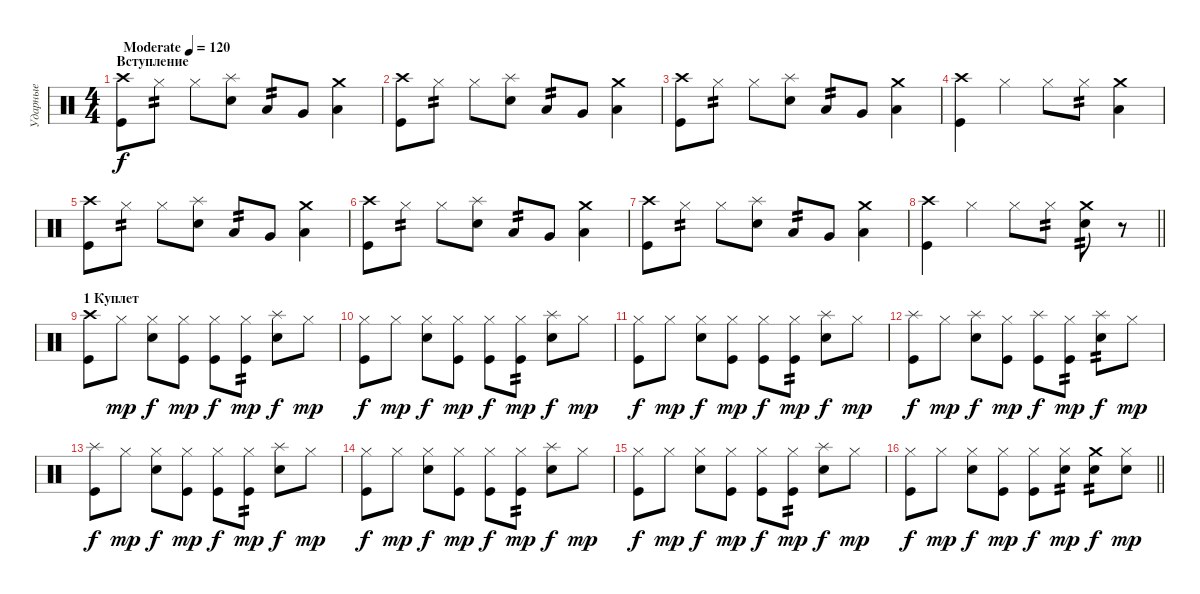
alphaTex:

\track ("Ударные" "Ударные") {instrument percussion}
\staff {score}
\articulation defaults
\ts (4 4)
\section ("" "Вступление")
\tempo (120 "Moderate")
\clef neutral
\ks c
("Crash high (hit)" "Kick (hit)").8{dy f} "Hi-Hat (closed)".8{tp 2} "Hi-Hat (closed)".8 ("Splash (hit)" "Snare (hit) 2").8 "Low Tom (hit)".8{tp 2} "Very Low Tom (hit)".8 ("Crash medium (hit)" "Low Floor Tom (hit)").4 |
("Crash high (hit)" "Kick (hit)").8 "Hi-Hat (closed)".8{tp 2} "Hi-Hat (closed)".8 ("Splash (hit)" "Snare (hit) 2").8 "Low Tom (hit)".8{tp 2} "Very Low Tom (hit)".8 ("Crash medium (hit)" "Low Floor Tom (hit)").4 |
("Crash high (hit)" "Kick (hit)").8 "Hi-Hat (closed)".8{tp 2} "Hi-Hat (closed)".8 ("Splash (hit)" "Snare (hit) 2").8 "Low Tom (hit)".8{tp 2} "Very Low Tom (hit)".8 ("Crash medium (hit)" "Low Floor Tom (hit)").4 |
("Crash high (hit)" "Kick (hit)").4 "Hi-Hat (closed)".4 "Hi-Hat (closed)".8 "Hi-Hat (closed)".8{tp 2} ("Crash medium (hit)" "Low Floor Tom (hit)").4 |
("Crash high (hit)" "Kick (hit)").8 "Hi-Hat (closed)".8{tp 2} "Hi-Hat (closed)".8 ("Splash (hit)" "Snare (hit) 2").8 "Low Tom (hit)".8{tp 2} "Very Low Tom (hit)".8 ("Crash medium (hit)" "Low Floor Tom (hit)").4 |
("Crash high (hit)" "Kick (hit)").8 "Hi-Hat (closed)".8{tp 2} "Hi-Hat (closed)".8 ("Splash (hit)" "Snare (hit) 2").8 "Low Tom (hit)".8{tp 2} "Very Low Tom (hit)".8 ("Crash medium (hit)" "Low Floor Tom (hit)").4 |
("Crash high (hit)" "Kick (hit)").8 "Hi-Hat (closed)".8{tp 2} "Hi-Hat (closed)".8 ("Splash (hit)" "Snare (hit) 2").8 "Low Tom (hit)".8{tp 2} "Very Low Tom (hit)".8 ("Crash medium (hit)" "Low Floor Tom (hit)").4 |
\barLineRight lightlight
("Crash high (hit)" "Kick (hit)").4 "Hi-Hat (closed)".4 "Hi-Hat (closed)".8 "Hi-Hat (closed)".8{tp 2} ("Crash medium (hit)" "Snare (hit) 2").8{tp 2} r.8 |
\section ("" "1 Куплет")
("Crash high (hit)" "Kick (hit)").8 "Hi-Hat (closed)".8{dy mp} ("Hi-Hat (closed)" "Snare (hit) 2").8{dy f} ("Hi-Hat (closed)" "Kick (hit)").8{dy mp} ("Hi-Hat (closed)" "Kick (hit)").8{dy f} ("Hi-Hat (closed)" "Kick (hit)").8{tp 2 dy mp} ("Splash (hit)" "Snare (hit) 2").8{dy f} "Hi-Hat (closed)".8{dy mp} |
("Hi-Hat (closed)" "Kick (hit)").8{dy f} "Hi-Hat (closed)".8{dy mp} ("Hi-Hat (closed)" "Snare (hit) 2").8{dy f} ("Hi-Hat (closed)" "Kick (hit)").8{dy mp} ("Hi-Hat (closed)" "Kick (hit)").8{dy f} ("Hi-Hat (closed)" "Kick (hit)").8{tp 2 dy mp} ("Splash (hit)" "Snare (hit) 2").8{dy f} "Hi-Hat (closed)".8{dy mp} |
("Hi-Hat (closed)" "Kick (hit)").8{dy f} "Hi-Hat (closed)".8{dy mp} ("Hi-Hat (closed)" "Snare (hit) 2").8{dy f} ("Hi-Hat (closed)" "Kick (hit)").8{dy mp} ("Hi-Hat (closed)" "Kick (hit)").8{dy f} ("Hi-Hat (closed)" "Kick (hit)").8{tp 2 dy mp} ("Splash (hit)" "Snare (hit) 2").8{dy f} "Hi-Hat (closed)".8{dy mp} |
("Splash (hit)" "Kick (hit)").8{dy f} "Hi-Hat (closed)".8{dy mp} ("Splash (hit)" "Snare (hit) 2").8{dy f} ("Hi-Hat (closed)" "Kick (hit)").8{dy mp} ("Splash (hit)" "Kick (hit)").8{dy f} ("Hi-Hat (closed)" "Kick (hit)").8{tp 2 dy mp} ("Splash (hit)" "Snare (hit) 2").8{tp 2 dy f} "Hi-Hat (closed)".8{dy mp} |
("Splash (hit)" "Kick (hit)").8{dy f} "Hi-Hat (closed)".8{dy mp} ("Hi-Hat (closed)" "Snare (hit) 2").8{dy f} ("Hi-Hat (closed)" "Kick (hit)").8{dy mp} ("Hi-Hat (closed)" "Kick (hit)").8{dy f} ("Hi-Hat (closed)" "Kick (hit)").8{tp 2 dy mp} ("Splash (hit)" "Snare (hit) 2").8{dy f} "Hi-Hat (closed)".8{dy mp} |
("Hi-Hat (closed)" "Kick (hit)").8{dy f} "Hi-Hat (closed)".8{dy mp} ("Hi-Hat (closed)" "Snare (hit) 2").8{dy f} ("Hi-Hat (closed)" "Kick (hit)").8{dy mp} ("Hi-Hat (closed)" "Kick (hit)").8{dy f} ("Hi-Hat (closed)" "Kick (hit)").8{tp 2 dy mp} ("Splash (hit)" "Snare (hit) 2").8{dy f} "Hi-Hat (closed)".8{dy mp} |
("Hi-Hat (closed)" "Kick (hit)").8{dy f} "Hi-Hat (closed)".8{dy mp} ("Hi-Hat (closed)" "Snare (hit) 2").8{dy f} ("Hi-Hat (closed)" "Kick (hit)").8{dy mp} ("Hi-Hat (closed)" "Kick (hit)").8{dy f} ("Hi-Hat (closed)" "Kick (hit)").8{tp 2 dy mp} ("Splash (hit)" "Snare (hit) 2").8{dy f} "Hi-Hat (closed)".8{dy mp} |
\barLineRight lightlight
("Hi-Hat (closed)" "Kick (hit)").8{dy f} "Hi-Hat (closed)".8{dy mp} ("Hi-Hat (closed)" "Snare (hit) 2").8{dy f} ("Hi-Hat (closed)" "Kick (hit)").8{dy mp} ("Hi-Hat (closed)" "Kick (hit)").8{dy f} ("Hi-Hat (closed)" "Snare (hit) 2").8{tp 2 dy mp} ("Crash medium (hit)" "Snare (hit) 2").8{tp 2 dy f} ("Hi-Hat (closed)" "Snare (hit) 2").8{dy mp}
